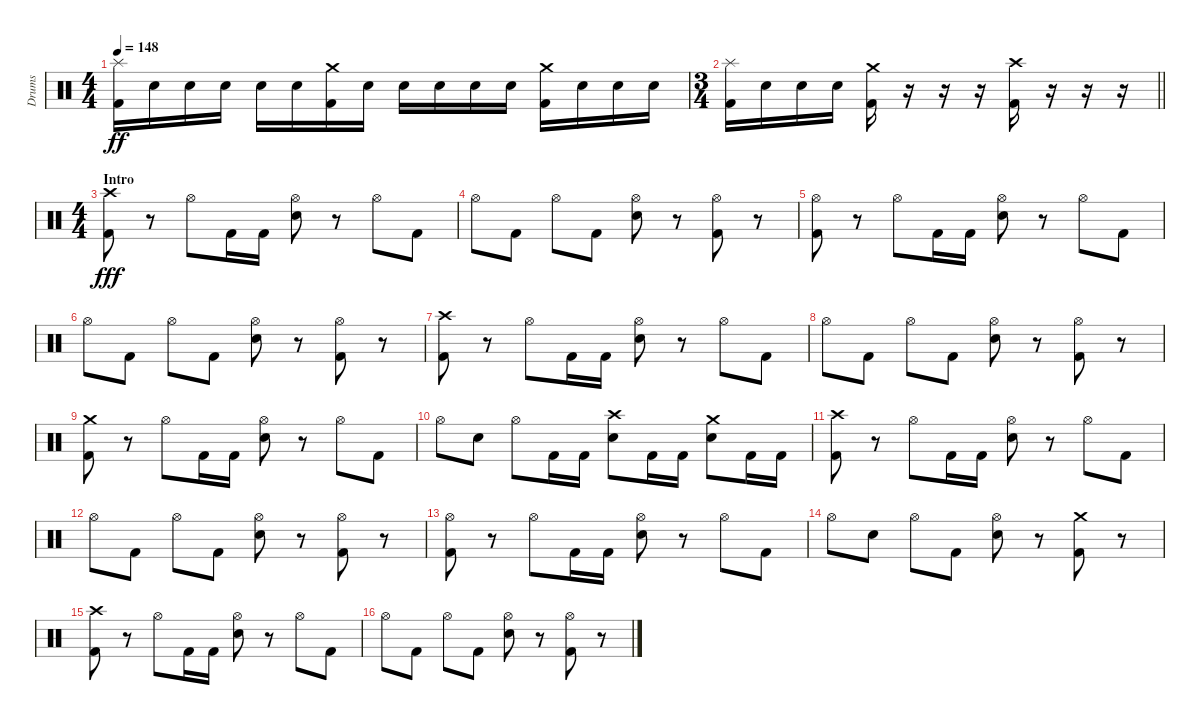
\track ("Drums" "Drums") {instrument percussion}
\staff {score}
\articulation defaults
\ts (4 4)
\tempo 148
\clef neutral
\ks c
("Splash (hit)" "Kick (hit) 2").16{dy ff} "Electric Snare (hit)".16 "Electric Snare (hit)".16 "Electric Snare (hit)".16 "Electric Snare (hit)".16 "Electric Snare (hit)".16 ("Crash medium (hit)" "Kick (hit) 2").16 "Electric Snare (hit)".16 "Electric Snare (hit)".16 "Electric Snare (hit)".16 "Electric Snare (hit)".16 "Electric Snare (hit)".16 ("Crash medium (hit)" "Kick (hit) 2").16 "Electric Snare (hit)".16 "Electric Snare (hit)".16 "Electric Snare (hit)".16 |
\ts (3 4)
\barLineRight lightlight
("Splash (hit)" "Kick (hit) 2").16 "Electric Snare (hit)".16 "Electric Snare (hit)".16 "Electric Snare (hit)".16 ("Crash medium (hit)" "Kick (hit) 2").16 r.16 r.16 r.16 ("Crash high (hit)" "Kick (hit) 2").16 r.16 r.16 r.16 |
\ts (4 4)
\section ("" "Intro")
("Crash high (hit)" "Kick (hit) 2").8{dy fff} r.8 "Hi-Hat (open)".8 "Kick (hit) 2".16 "Kick (hit) 2".16 ("Hi-Hat (open)" "Electric Snare (hit)").8 r.8 "Hi-Hat (open)".8 "Kick (hit) 2".8 |
"Hi-Hat (open)".8 "Kick (hit) 2".8 "Hi-Hat (open)".8 "Kick (hit) 2".8 ("Hi-Hat (open)" "Electric Snare (hit)").8 r.8 ("Hi-Hat (open)" "Kick (hit) 2").8 r.8 |
("Hi-Hat (open)" "Kick (hit) 2").8 r.8 "Hi-Hat (open)".8 "Kick (hit) 2".16 "Kick (hit) 2".16 ("Hi-Hat (open)" "Electric Snare (hit)").8 r.8 "Hi-Hat (open)".8 "Kick (hit) 2".8 |
"Hi-Hat (open)".8 "Kick (hit) 2".8 "Hi-Hat (open)".8 "Kick (hit) 2".8 ("Hi-Hat (open)" "Electric Snare (hit)").8 r.8 ("Hi-Hat (open)" "Kick (hit) 2").8 r.8 |
("Crash high (hit)" "Kick (hit) 2").8 r.8 "Hi-Hat (open)".8 "Kick (hit) 2".16 "Kick (hit) 2".16 ("Hi-Hat (open)" "Electric Snare (hit)").8 r.8 "Hi-Hat (open)".8 "Kick (hit) 2".8 |
"Hi-Hat (open)".8 "Kick (hit) 2".8 "Hi-Hat (open)".8 "Kick (hit) 2".8 ("Hi-Hat (open)" "Electric Snare (hit)").8 r.8 ("Hi-Hat (open)" "Kick (hit) 2").8 r.8 |
("Crash medium (hit)" "Kick (hit) 2").8 r.8 "Hi-Hat (open)".8 "Kick (hit) 2".16 "Kick (hit) 2".16 ("Hi-Hat (open)" "Electric Snare (hit)").8 r.8 "Hi-Hat (open)".8 "Kick (hit) 2".8 |
"Hi-Hat (open)".8 "Electric Snare (hit)".8 "Hi-Hat (open)".8 "Kick (hit) 2".16 "Kick (hit) 2".16 ("Crash high (hit)" "Electric Snare (hit)").8 "Kick (hit) 2".16 "Kick (hit) 2".16 ("Crash medium (hit)" "Electric Snare (hit)").8 "Kick (hit) 2".16 "Kick (hit) 2".16 |
("Crash high (hit)" "Kick (hit) 2").8 r.8 "Hi-Hat (open)".8 "Kick (hit) 2".16 "Kick (hit) 2".16 ("Hi-Hat (open)" "Electric Snare (hit)").8 r.8 "Hi-Hat (open)".8 "Kick (hit) 2".8 |
"Hi-Hat (open)".8 "Kick (hit) 2".8 "Hi-Hat (open)".8 "Kick (hit) 2".8 ("Hi-Hat (open)" "Electric Snare (hit)").8 r.8 ("Hi-Hat (open)" "Kick (hit) 2").8 r.8 |
("Hi-Hat (open)" "Kick (hit) 2").8 r.8 "Hi-Hat (open)".8 "Kick (hit) 2".16 "Kick (hit) 2".16 ("Hi-Hat (open)" "Electric Snare (hit)").8 r.8 "Hi-Hat (open)".8 "Kick (hit) 2".8 |
"Hi-Hat (open)".8 "Electric Snare (hit)".8 "Hi-Hat (open)".8 "Kick (hit) 2".8 ("Hi-Hat (open)" "Electric Snare (hit)").8 r.8 ("Crash medium (hit)" "Kick (hit) 2").8 r.8 |
("Crash high (hit)" "Kick (hit) 2").8 r.8 "Hi-Hat (open)".8 "Kick (hit) 2".16 "Kick (hit) 2".16 ("Hi-Hat (open)" "Electric Snare (hit)").8 r.8 "Hi-Hat (open)".8 "Kick (hit) 2".8 |
"Hi-Hat (open)".8 "Kick (hit) 2".8 "Hi-Hat (open)".8 "Kick (hit) 2".8 ("Hi-Hat (open)" "Electric Snare (hit)").8 r.8 ("Hi-Hat (open)" "Kick (hit) 2").8 r.8
